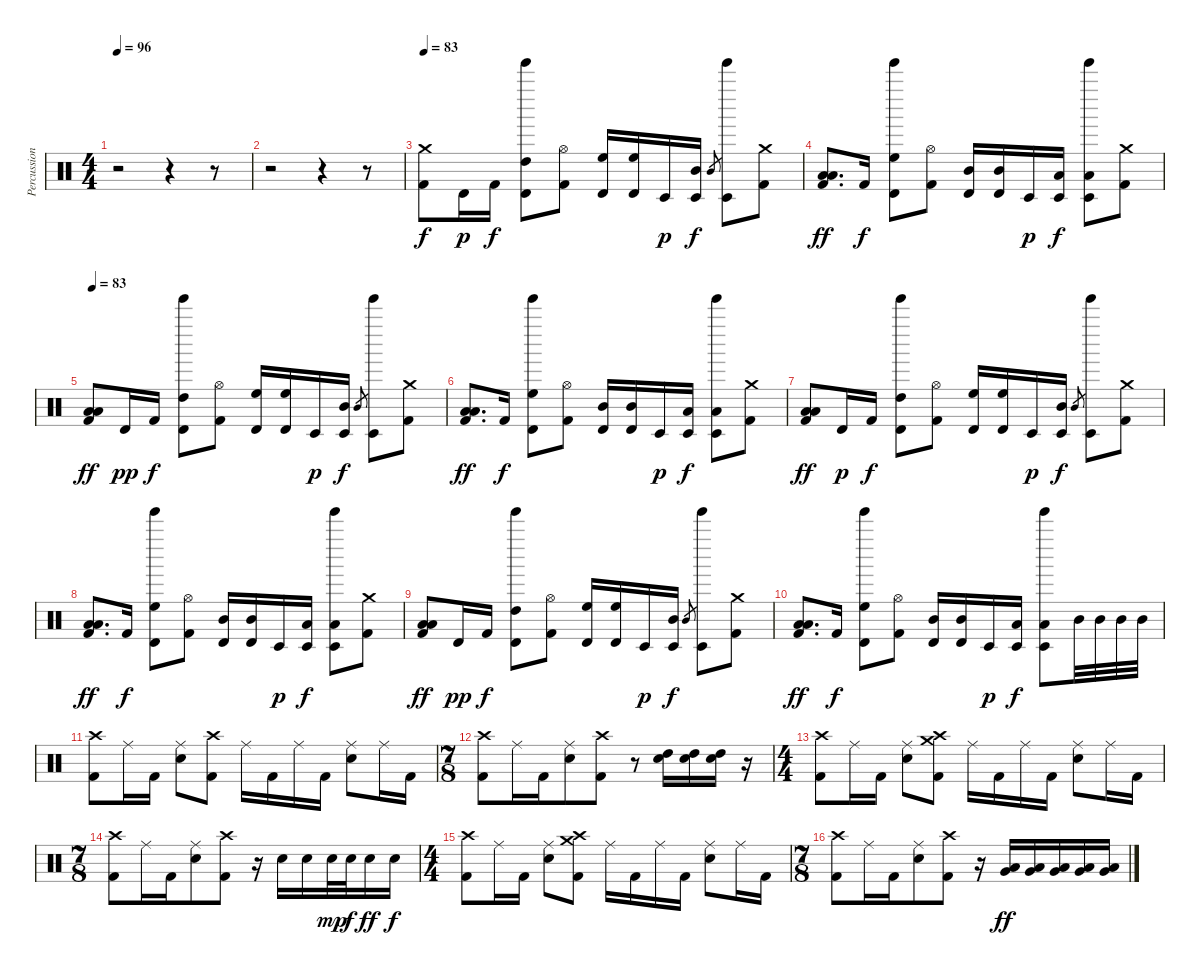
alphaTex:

\track ("Percussion" "Percussion") {instrument percussion}
\staff {score}
\articulation defaults
\ts (4 4)
\tempo 96
\tempo 69
\tempo 96
\clef neutral
\ks c
r.2{dy f} r.4 r.8 |
r.2 r.4 r.8 |
\tempo 83
("Crash medium (hit)" "Kick (hit) 2").8 "Timbale high (hit)".16{dy p} "Kick (hit) 2".16{dy f} ("Tinkle Bell (hit)" "Timbale high (hit)" "High Tom (hit)").8{bu 120} ("Hi-Hat (open)" "Kick (hit) 2").8 ("Timbale high (hit)" "High Floor Tom (hit)").16 ("Timbale high (hit)" "High Floor Tom (hit)").16{bd 480} "Timbale low (hit)".16{dy p} ("Timbale low (hit)" "Mid Tom (hit)").16{dy f} "Mid Tom (hit)".8{gr} ("Tinkle Bell (hit)" "Timbale low (hit)").8 ("Crash medium (hit)" "Kick (hit) 2").8 |
("Low Floor Tom (hit)" "Low Floor Tom (hit)" "Kick (hit) 2").8{d dy ff} "Kick (hit) 2".16{dy f} ("Tinkle Bell (hit)" "Timbale high (hit)" "High Floor Tom (hit)").8{bu 120} ("Hi-Hat (open)" "Kick (hit) 2").8 ("Timbale high (hit)" "Mid Tom (hit)").16 ("Timbale high (hit)" "Mid Tom (hit)").16{bu 480} "Timbale low (hit)".16{dy p} ("Timbale low (hit)" "Low Tom (hit)").16{dy f} ("Tinkle Bell (hit)" "Timbale low (hit)" "Low Tom (hit)").8{bu 120} ("Crash medium (hit)" "Kick (hit) 2").8 |
\tempo 83
("Low Floor Tom (hit)" "Low Floor Tom (hit)" "Kick (hit) 2").8{dy ff} "Timbale high (hit)".16{dy pp} "Kick (hit) 2".16{dy f} ("Tinkle Bell (hit)" "Timbale high (hit)" "High Tom (hit)").8{bu 120} ("Hi-Hat (open)" "Kick (hit) 2").8 ("Timbale high (hit)" "High Floor Tom (hit)").16 ("Timbale high (hit)" "High Floor Tom (hit)").16{bd 480} "Timbale low (hit)".16{dy p} ("Timbale low (hit)" "Mid Tom (hit)").16{dy f} "Mid Tom (hit)".8{gr} ("Tinkle Bell (hit)" "Timbale low (hit)").8 ("Crash medium (hit)" "Kick (hit) 2").8 |
("Low Floor Tom (hit)" "Low Floor Tom (hit)" "Kick (hit) 2").8{d dy ff} "Kick (hit) 2".16{dy f} ("Tinkle Bell (hit)" "Timbale high (hit)" "High Floor Tom (hit)").8{bu 120} ("Hi-Hat (open)" "Kick (hit) 2").8 ("Timbale high (hit)" "Mid Tom (hit)").16 ("Timbale high (hit)" "Mid Tom (hit)").16{bu 480} "Timbale low (hit)".16{dy p} ("Timbale low (hit)" "Low Tom (hit)").16{dy f} ("Tinkle Bell (hit)" "Timbale low (hit)" "Low Tom (hit)").8{bu 120} ("Crash medium (hit)" "Kick (hit) 2").8 |
("Low Floor Tom (hit)" "Low Floor Tom (hit)" "Kick (hit) 2").8{dy ff} "Timbale high (hit)".16{dy p} "Kick (hit) 2".16{dy f} ("Tinkle Bell (hit)" "Timbale high (hit)" "High Tom (hit)").8{bu 120} ("Hi-Hat (open)" "Kick (hit) 2").8 ("Timbale high (hit)" "High Floor Tom (hit)").16 ("Timbale high (hit)" "High Floor Tom (hit)").16{bd 480} "Timbale low (hit)".16{dy p} ("Timbale low (hit)" "Mid Tom (hit)").16{dy f} "Mid Tom (hit)".8{gr} ("Tinkle Bell (hit)" "Timbale low (hit)").8 ("Crash medium (hit)" "Kick (hit) 2").8 |
("Low Floor Tom (hit)" "Low Floor Tom (hit)" "Kick (hit) 2").8{d dy ff} "Kick (hit) 2".16{dy f} ("Tinkle Bell (hit)" "Timbale high (hit)" "High Floor Tom (hit)").8{bu 120} ("Hi-Hat (open)" "Kick (hit) 2").8 ("Timbale high (hit)" "Mid Tom (hit)").16 ("Timbale high (hit)" "Mid Tom (hit)").16{bu 480} "Timbale low (hit)".16{dy p} ("Timbale low (hit)" "Low Tom (hit)").16{dy f} ("Tinkle Bell (hit)" "Timbale low (hit)" "Low Tom (hit)").8{bu 120} ("Crash medium (hit)" "Kick (hit) 2").8 |
("Low Floor Tom (hit)" "Low Floor Tom (hit)" "Kick (hit) 2").8{dy ff} "Timbale high (hit)".16{dy pp} "Kick (hit) 2".16{dy f} ("Tinkle Bell (hit)" "Timbale high (hit)" "High Tom (hit)").8{bu 120} ("Hi-Hat (open)" "Kick (hit) 2").8 ("Timbale high (hit)" "High Floor Tom (hit)").16 ("Timbale high (hit)" "High Floor Tom (hit)").16{bd 480} "Timbale low (hit)".16{dy p} ("Timbale low (hit)" "Mid Tom (hit)").16{dy f} "Mid Tom (hit)".8{gr} ("Tinkle Bell (hit)" "Timbale low (hit)").8 ("Crash medium (hit)" "Kick (hit) 2").8 |
("Low Floor Tom (hit)" "Low Floor Tom (hit)" "Kick (hit) 2").8{d dy ff} "Kick (hit) 2".16{dy f} ("Tinkle Bell (hit)" "Timbale high (hit)" "High Floor Tom (hit)").8{bu 120} ("Hi-Hat (open)" "Kick (hit) 2").8 ("Timbale high (hit)" "Mid Tom (hit)").16 ("Timbale high (hit)" "Mid Tom (hit)").16{bu 480} "Timbale low (hit)".16{dy p} ("Timbale low (hit)" "Low Tom (hit)").16{dy f} ("Tinkle Bell (hit)" "Timbale low (hit)" "Low Tom (hit)").8{bu 120} "Mid Tom (hit)".32 "Mid Tom (hit)".32 "Mid Tom (hit)".32 "Mid Tom (hit)".32 |
("Crash high (hit)" "Kick (hit) 2").8 "Ride (middle)".16 "Kick (hit) 2".16 ("Ride (middle)" "Electric Snare (hit)").8 ("Crash high (hit)" "Kick (hit) 2").8 "Ride (middle)".16 "Kick (hit) 2".16 "Ride (middle)".16 "Kick (hit) 2".16 ("Ride (middle)" "Electric Snare (hit)").8 "Ride (middle)".16 "Kick (hit) 2".16 |
\ts (7 8)
("Crash high (hit)" "Kick (hit) 2").8 "Ride (middle)".16 "Kick (hit) 2".16 ("Ride (middle)" "Electric Snare (hit)").8 ("Crash high (hit)" "Kick (hit) 2").8 r.8 ("Electric Snare (hit)" "High Tom (hit)").16{bd 480} ("Electric Snare (hit)" "High Tom (hit)").16{bd 480} ("Electric Snare (hit)" "High Tom (hit)").16{bd 480} r.16 |
\ts (4 4)
("Crash high (hit)" "Kick (hit) 2").8 "Ride (middle)".16 "Kick (hit) 2".16 ("Ride (middle)" "Electric Snare (hit)").8 ("Crash high (hit)" "Crash medium (hit)" "Kick (hit) 2").8 "Ride (middle)".16 "Kick (hit) 2".16 "Ride (middle)".16 "Kick (hit) 2".16 ("Ride (middle)" "Electric Snare (hit)").8 "Ride (middle)".16 "Kick (hit) 2".16 |
\ts (7 8)
("Crash high (hit)" "Kick (hit) 2").8 "Ride (middle)".16 "Kick (hit) 2".16 ("Ride (middle)" "Electric Snare (hit)").8 ("Crash high (hit)" "Kick (hit) 2").8 r.16 "Electric Snare (hit)".16 "Electric Snare (hit)".16 "Electric Snare (hit)".32{dy mp} "Electric Snare (hit)".32{dy f} "Electric Snare (hit)".16{dy ff} "Electric Snare (hit)".16{dy f} |
\ts (4 4)
("Crash high (hit)" "Kick (hit) 2").8 "Ride (middle)".16 "Kick (hit) 2".16 ("Ride (middle)" "Electric Snare (hit)").8 ("Crash high (hit)" "Crash medium (hit)" "Kick (hit) 2").8 "Ride (middle)".16 "Kick (hit) 2".16 "Ride (middle)".16 "Kick (hit) 2".16 ("Ride (middle)" "Electric Snare (hit)").8 "Ride (middle)".16 "Kick (hit) 2".16 |
\ts (7 8)
("Crash high (hit)" "Kick (hit) 2").8 "Ride (middle)".16 "Kick (hit) 2".16 ("Ride (middle)" "Electric Snare (hit)").8 ("Crash high (hit)" "Kick (hit) 2").8 r.16 ("Very Low Tom (hit)" "Low Floor Tom (hit)").16{dy ff} ("Very Low Tom (hit)" "Low Floor Tom (hit)").16 ("Very Low Tom (hit)" "Low Floor Tom (hit)").16 ("Very Low Tom (hit)" "Low Floor Tom (hit)").16 ("Very Low Tom (hit)" "Low Floor Tom (hit)").16
